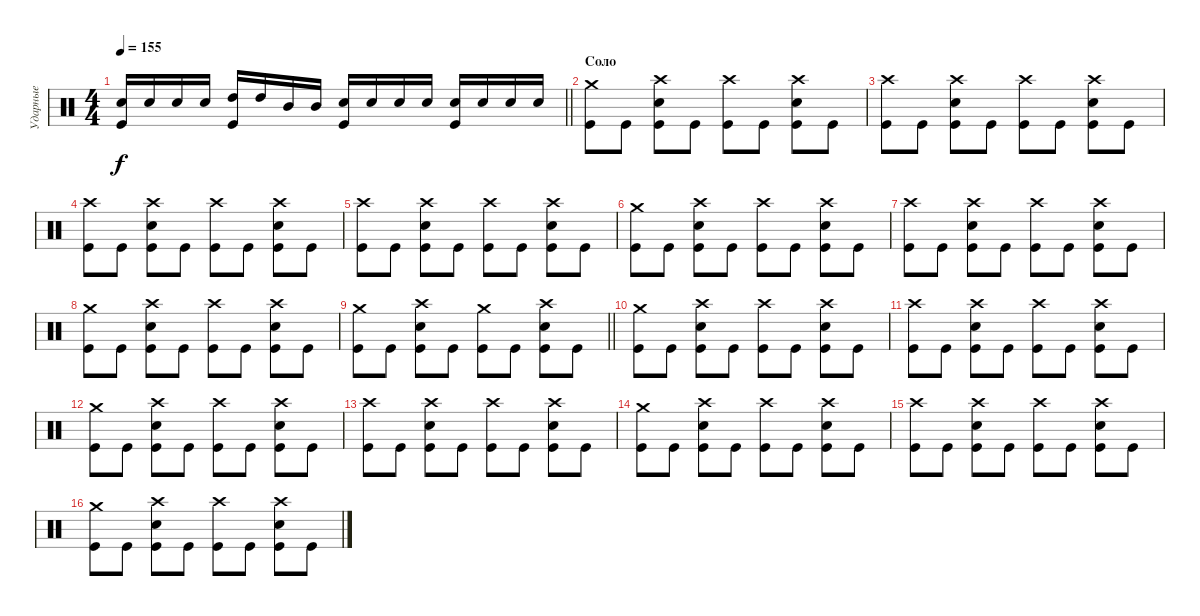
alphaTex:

\track ("Ударные" "Ударные") {instrument percussion}
\staff {score}
\articulation defaults
\ts (4 4)
\tempo 155
\clef neutral
\barLineRight lightlight
\ks c
("Electric Snare (hit)" "Kick (hit)").16{dy f} "Electric Snare (hit)".16 "Electric Snare (hit)".16 "Electric Snare (hit)".16 ("High Tom (hit)" "Kick (hit)").16 "High Tom (hit)".16 "Mid Tom (hit)".16 "Mid Tom (hit)".16 ("Electric Snare (hit)" "Kick (hit)").16 "Electric Snare (hit)".16 "Electric Snare (hit)".16 "Electric Snare (hit)".16 ("Electric Snare (hit)" "Kick (hit)").16 "Electric Snare (hit)".16 "Electric Snare (hit)".16 "Electric Snare (hit)".16 |
\section ("" "Соло")
("Kick (hit)" "Crash medium (hit)").8 "Kick (hit)".8 ("Electric Snare (hit)" "Kick (hit)" "Crash high (hit)").8 "Kick (hit)".8 ("Kick (hit)" "Crash high (hit)").8 "Kick (hit)".8 ("Electric Snare (hit)" "Kick (hit)" "Crash high (hit)").8 "Kick (hit)".8 |
("Kick (hit)" "Crash high (hit)").8 "Kick (hit)".8 ("Electric Snare (hit)" "Kick (hit)" "Crash high (hit)").8 "Kick (hit)".8 ("Kick (hit)" "Crash high (hit)").8 "Kick (hit)".8 ("Electric Snare (hit)" "Kick (hit)" "Crash high (hit)").8 "Kick (hit)".8 |
("Kick (hit)" "Crash high (hit)").8 "Kick (hit)".8 ("Electric Snare (hit)" "Kick (hit)" "Crash high (hit)").8 "Kick (hit)".8 ("Kick (hit)" "Crash high (hit)").8 "Kick (hit)".8 ("Electric Snare (hit)" "Kick (hit)" "Crash high (hit)").8 "Kick (hit)".8 |
("Kick (hit)" "Crash high (hit)").8 "Kick (hit)".8 ("Electric Snare (hit)" "Kick (hit)" "Crash high (hit)").8 "Kick (hit)".8 ("Kick (hit)" "Crash high (hit)").8 "Kick (hit)".8 ("Electric Snare (hit)" "Kick (hit)" "Crash high (hit)").8 "Kick (hit)".8 |
("Kick (hit)" "Crash medium (hit)").8 "Kick (hit)".8 ("Electric Snare (hit)" "Kick (hit)" "Crash high (hit)").8 "Kick (hit)".8 ("Kick (hit)" "Crash high (hit)").8 "Kick (hit)".8 ("Electric Snare (hit)" "Kick (hit)" "Crash high (hit)").8 "Kick (hit)".8 |
("Kick (hit)" "Crash high (hit)").8 "Kick (hit)".8 ("Electric Snare (hit)" "Kick (hit)" "Crash high (hit)").8 "Kick (hit)".8 ("Kick (hit)" "Crash high (hit)").8 "Kick (hit)".8 ("Electric Snare (hit)" "Kick (hit)" "Crash high (hit)").8 "Kick (hit)".8 |
("Kick (hit)" "Crash medium (hit)").8 "Kick (hit)".8 ("Electric Snare (hit)" "Kick (hit)" "Crash high (hit)").8 "Kick (hit)".8 ("Kick (hit)" "Crash high (hit)").8 "Kick (hit)".8 ("Electric Snare (hit)" "Kick (hit)" "Crash high (hit)").8 "Kick (hit)".8 |
\barLineRight lightlight
("Kick (hit)" "Crash medium (hit)").8 "Kick (hit)".8 ("Electric Snare (hit)" "Kick (hit)" "Crash high (hit)").8 "Kick (hit)".8 ("Kick (hit)" "Crash medium (hit)").8 "Kick (hit)".8 ("Electric Snare (hit)" "Kick (hit)" "Crash high (hit)").8 "Kick (hit)".8 |
\section ("" " ")
("Kick (hit)" "Crash medium (hit)").8 "Kick (hit)".8 ("Electric Snare (hit)" "Kick (hit)" "Crash high (hit)").8 "Kick (hit)".8 ("Kick (hit)" "Crash high (hit)").8 "Kick (hit)".8 ("Electric Snare (hit)" "Kick (hit)" "Crash high (hit)").8 "Kick (hit)".8 |
("Kick (hit)" "Crash high (hit)").8 "Kick (hit)".8 ("Electric Snare (hit)" "Kick (hit)" "Crash high (hit)").8 "Kick (hit)".8 ("Kick (hit)" "Crash high (hit)").8 "Kick (hit)".8 ("Electric Snare (hit)" "Kick (hit)" "Crash high (hit)").8 "Kick (hit)".8 |
("Kick (hit)" "Crash medium (hit)").8 "Kick (hit)".8 ("Electric Snare (hit)" "Kick (hit)" "Crash high (hit)").8 "Kick (hit)".8 ("Kick (hit)" "Crash high (hit)").8 "Kick (hit)".8 ("Electric Snare (hit)" "Kick (hit)" "Crash high (hit)").8 "Kick (hit)".8 |
("Kick (hit)" "Crash high (hit)").8 "Kick (hit)".8 ("Electric Snare (hit)" "Kick (hit)" "Crash high (hit)").8 "Kick (hit)".8 ("Kick (hit)" "Crash high (hit)").8 "Kick (hit)".8 ("Electric Snare (hit)" "Kick (hit)" "Crash high (hit)").8 "Kick (hit)".8 |
("Kick (hit)" "Crash medium (hit)").8 "Kick (hit)".8 ("Electric Snare (hit)" "Kick (hit)" "Crash high (hit)").8 "Kick (hit)".8 ("Kick (hit)" "Crash high (hit)").8 "Kick (hit)".8 ("Electric Snare (hit)" "Kick (hit)" "Crash high (hit)").8 "Kick (hit)".8 |
("Kick (hit)" "Crash high (hit)").8 "Kick (hit)".8 ("Electric Snare (hit)" "Kick (hit)" "Crash high (hit)").8 "Kick (hit)".8 ("Kick (hit)" "Crash high (hit)").8 "Kick (hit)".8 ("Electric Snare (hit)" "Kick (hit)" "Crash high (hit)").8 "Kick (hit)".8 |
("Kick (hit)" "Crash medium (hit)").8 "Kick (hit)".8 ("Electric Snare (hit)" "Kick (hit)" "Crash high (hit)").8 "Kick (hit)".8 ("Kick (hit)" "Crash high (hit)").8 "Kick (hit)".8 ("Electric Snare (hit)" "Kick (hit)" "Crash high (hit)").8 "Kick (hit)".8
